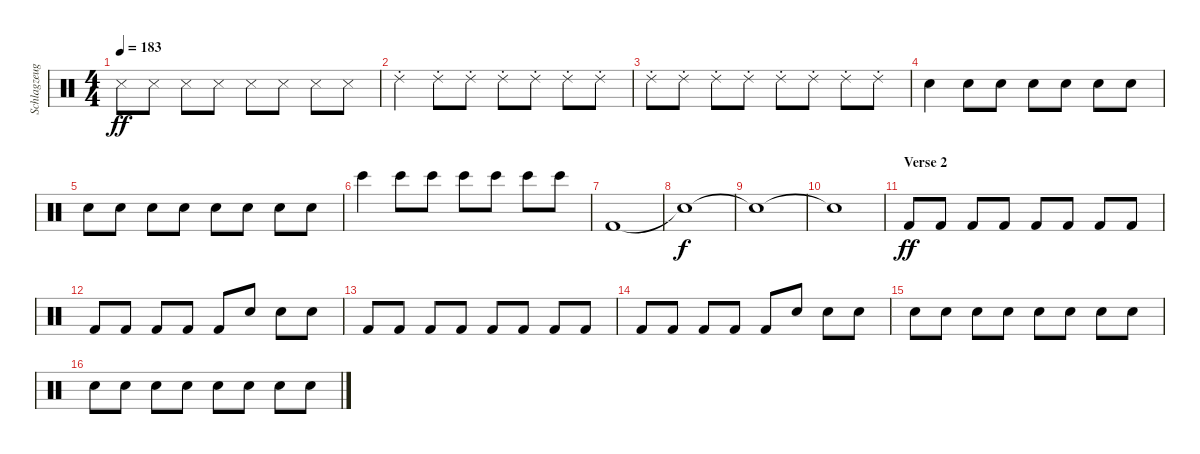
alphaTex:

\track ("Schlagzeug - Bela B." "Schlagzeug") {instrument percussion}
\staff {score}
\articulation defaults
\ts (4 4)
\tempo 183
\clef neutral
\ks c "Metronome (hit)".8{dy ff} "Metronome (hit)".8 "Metronome (hit)".8 "Metronome (hit)".8 "Metronome (hit)".8 "Metronome (hit)".8 "Metronome (hit)".8 "Metronome (hit)".8
|
"Ride (choke) 2".4 "Ride (choke) 2".8 "Ride (choke) 2".8 "Ride (choke) 2".8 "Ride (choke) 2".8 "Ride (choke) 2".8 "Ride (choke) 2".8 |
"Ride (choke) 2".8 "Ride (choke) 2".8 "Ride (choke) 2".8 "Ride (choke) 2".8 "Ride (choke) 2".8 "Ride (choke) 2".8 "Ride (choke) 2".8 "Ride (choke) 2".8 |
"Snare (hit) 2".4 "Snare (hit) 2".8 "Snare (hit) 2".8 "Snare (hit) 2".8 "Snare (hit) 2".8 "Snare (hit) 2".8 "Snare (hit) 2".8 |
"Snare (hit) 2".8 "Snare (hit) 2".8 "Snare (hit) 2".8 "Snare (hit) 2".8 "Snare (hit) 2".8 "Snare (hit) 2".8 "Snare (hit) 2".8 "Snare (hit) 2".8 |
"Bongo High (hit)".4 "Bongo High (hit)".8 "Bongo High (hit)".8 "Bongo High (hit)".8 "Bongo High (hit)".8 "Bongo High (hit)".8 "Bongo High (hit)".8 |
"Kick (hit) 2".1 |
"Snare (hit)"{t}.1{dy f} |
"Snare (hit)"{t}.1 |
"Snare (hit)"{t}.1 |
\section ("" "Verse 2")
"Kick (hit) 2".8{dy ff} "Kick (hit) 2".8 "Kick (hit) 2".8 "Kick (hit) 2".8 "Kick (hit) 2".8 "Kick (hit) 2".8 "Kick (hit) 2".8 "Kick (hit) 2".8 |
"Kick (hit) 2".8 "Kick (hit) 2".8 "Kick (hit) 2".8 "Kick (hit) 2".8 "Kick (hit) 2".8 "Metronome (bell)".8 "Metronome (bell)".8 "Metronome (bell)".8 |
"Kick (hit) 2".8 "Kick (hit) 2".8 "Kick (hit) 2".8 "Kick (hit) 2".8 "Kick (hit) 2".8 "Kick (hit) 2".8 "Kick (hit) 2".8 "Kick (hit) 2".8 |
"Kick (hit) 2".8 "Kick (hit) 2".8 "Kick (hit) 2".8 "Kick (hit) 2".8 "Kick (hit) 2".8 "Metronome (bell)".8 "Metronome (bell)".8 "Metronome (bell)".8 |
"Snare (hit) 2".8 "Snare (hit) 2".8 "Snare (hit) 2".8 "Snare (hit) 2".8 "Snare (hit) 2".8 "Snare (hit) 2".8 "Snare (hit) 2".8 "Snare (hit) 2".8 |
"Snare (hit) 2".8 "Snare (hit) 2".8 "Snare (hit) 2".8 "Snare (hit) 2".8 "Snare (hit) 2".8 "Snare (hit) 2".8 "Snare (hit) 2".8 "Snare (hit) 2".8
